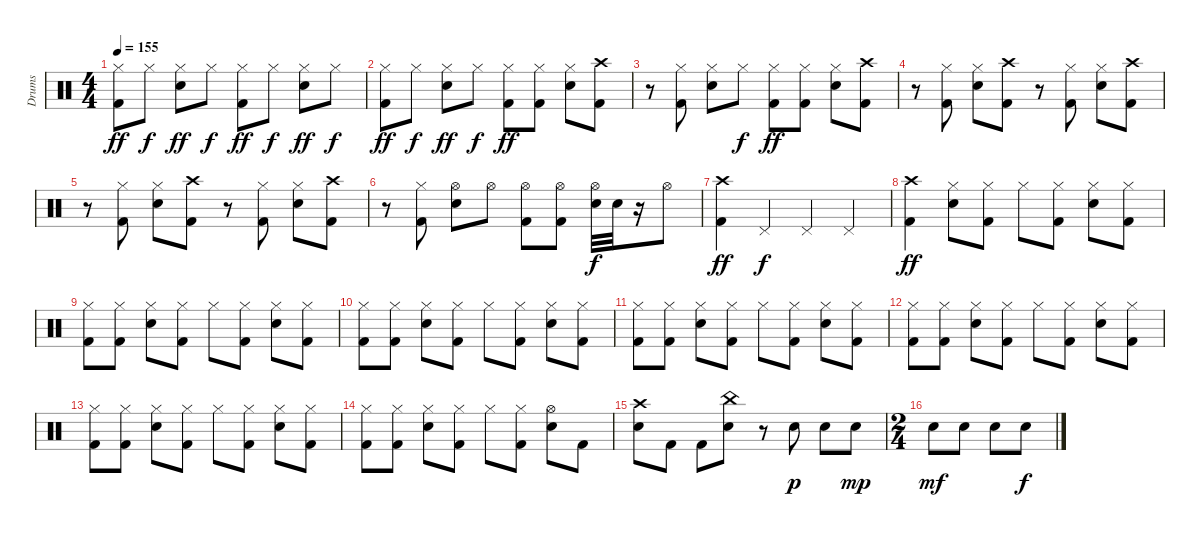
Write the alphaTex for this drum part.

\track ("Drums" "Drums") {instrument percussion}
\staff {score}
\articulation defaults
\ts (4 4)
\tempo 155
\clef neutral
\ks c
("Hi-Hat (closed)" "Kick (hit) 2").8{dy ff} "Hi-Hat (closed)".8{dy f} ("Hi-Hat (closed)" "Snare (hit) 2").8{dy ff} "Hi-Hat (closed)".8{dy f} ("Hi-Hat (closed)" "Kick (hit) 2").8{dy ff} "Hi-Hat (closed)".8{dy f} ("Hi-Hat (closed)" "Snare (hit) 2").8{dy ff} "Hi-Hat (closed)".8{dy f} |
("Hi-Hat (closed)" "Kick (hit) 2").8{dy ff} "Hi-Hat (closed)".8{dy f} ("Hi-Hat (closed)" "Snare (hit) 2").8{dy ff} "Hi-Hat (closed)".8{dy f} ("Hi-Hat (closed)" "Kick (hit) 2").8{dy ff} ("Hi-Hat (closed)" "Kick (hit) 2").8 ("Hi-Hat (closed)" "Snare (hit) 2").8 ("Crash high (hit)" "Kick (hit) 2").8 |
r.8 ("Hi-Hat (closed)" "Kick (hit) 2").8 ("Hi-Hat (closed)" "Snare (hit) 2").8 "Hi-Hat (closed)".8{dy f} ("Hi-Hat (closed)" "Kick (hit) 2").8{dy ff} ("Hi-Hat (closed)" "Kick (hit) 2").8 ("Hi-Hat (closed)" "Snare (hit) 2").8 ("Crash high (hit)" "Kick (hit) 2").8 |
r.8 ("Hi-Hat (closed)" "Kick (hit) 2").8 ("Hi-Hat (closed)" "Snare (hit) 2").8 ("Crash high (hit)" "Kick (hit) 2").8 r.8 ("Hi-Hat (closed)" "Kick (hit) 2").8 ("Hi-Hat (closed)" "Snare (hit) 2").8 ("Crash high (hit)" "Kick (hit) 2").8 |
r.8 ("Hi-Hat (closed)" "Kick (hit) 2").8 ("Hi-Hat (closed)" "Snare (hit) 2").8 ("Crash high (hit)" "Kick (hit) 2").8 r.8 ("Hi-Hat (closed)" "Kick (hit) 2").8 ("Hi-Hat (closed)" "Snare (hit) 2").8 ("Crash high (hit)" "Kick (hit) 2").8 |
r.8 ("Hi-Hat (closed)" "Kick (hit) 2").8 ("Hi-Hat (open)" "Snare (hit) 2").8 "Hi-Hat (open)".8 ("Hi-Hat (open)" "Kick (hit) 2").8 ("Hi-Hat (open)" "Kick (hit) 2").8 ("Hi-Hat (open)" "Snare (hit) 2").32{dy f} "Snare (hit) 2".32 r.16 "Hi-Hat (open)".8 |
("Crash high (hit)" "Kick (hit) 2").4{dy ff} "Pedal Hi-Hat (hit)".4{dy f} "Pedal Hi-Hat (hit)".4 "Pedal Hi-Hat (hit)".4 |
("Crash high (hit)" "Kick (hit) 2").4{dy ff} ("Hi-Hat (closed)" "Snare (hit) 2").8 ("Hi-Hat (closed)" "Kick (hit) 2").8 "Hi-Hat (closed)".8 ("Hi-Hat (closed)" "Kick (hit) 2").8 ("Hi-Hat (closed)" "Snare (hit) 2").8 ("Hi-Hat (closed)" "Kick (hit) 2").8 |
("Hi-Hat (closed)" "Kick (hit) 2").8 ("Hi-Hat (closed)" "Kick (hit) 2").8 ("Hi-Hat (closed)" "Snare (hit) 2").8 ("Hi-Hat (closed)" "Kick (hit) 2").8 "Hi-Hat (closed)".8 ("Hi-Hat (closed)" "Kick (hit) 2").8 ("Hi-Hat (closed)" "Snare (hit) 2").8 ("Hi-Hat (closed)" "Kick (hit) 2").8 |
("Hi-Hat (closed)" "Kick (hit) 2").8 ("Hi-Hat (closed)" "Kick (hit) 2").8 ("Hi-Hat (closed)" "Snare (hit) 2").8 ("Hi-Hat (closed)" "Kick (hit) 2").8 "Hi-Hat (closed)".8 ("Hi-Hat (closed)" "Kick (hit) 2").8 ("Hi-Hat (closed)" "Snare (hit) 2").8 ("Hi-Hat (closed)" "Kick (hit) 2").8 |
("Hi-Hat (closed)" "Kick (hit) 2").8 ("Hi-Hat (closed)" "Kick (hit) 2").8 ("Hi-Hat (closed)" "Snare (hit) 2").8 ("Hi-Hat (closed)" "Kick (hit) 2").8 "Hi-Hat (closed)".8 ("Hi-Hat (closed)" "Kick (hit) 2").8 ("Hi-Hat (closed)" "Snare (hit) 2").8 ("Hi-Hat (closed)" "Kick (hit) 2").8 |
("Hi-Hat (closed)" "Kick (hit) 2").8 ("Hi-Hat (closed)" "Kick (hit) 2").8 ("Hi-Hat (closed)" "Snare (hit) 2").8 ("Hi-Hat (closed)" "Kick (hit) 2").8 "Hi-Hat (closed)".8 ("Hi-Hat (closed)" "Kick (hit) 2").8 ("Hi-Hat (closed)" "Snare (hit) 2").8 ("Hi-Hat (closed)" "Kick (hit) 2").8 |
("Hi-Hat (closed)" "Kick (hit) 2").8 ("Hi-Hat (closed)" "Kick (hit) 2").8 ("Hi-Hat (closed)" "Snare (hit) 2").8 ("Hi-Hat (closed)" "Kick (hit) 2").8 "Hi-Hat (closed)".8 ("Hi-Hat (closed)" "Kick (hit) 2").8 ("Hi-Hat (closed)" "Snare (hit) 2").8 ("Hi-Hat (closed)" "Kick (hit) 2").8 |
("Hi-Hat (closed)" "Kick (hit) 2").8 ("Hi-Hat (closed)" "Kick (hit) 2").8 ("Hi-Hat (closed)" "Snare (hit) 2").8 ("Hi-Hat (closed)" "Kick (hit) 2").8 "Hi-Hat (closed)".8 ("Hi-Hat (closed)" "Kick (hit) 2").8 ("Hi-Hat (open)" "Snare (hit) 2").8 "Kick (hit) 2".8 |
("Crash high (hit)" "Snare (hit) 2").8 "Kick (hit) 2".8 "Kick (hit) 2".8 ("China (hit)" "Snare (hit) 2").8 r.8 "Snare (hit) 2".8{dy p} "Snare (hit) 2".8 "Snare (hit) 2".8{dy mp} |
\ts (2 4)
"Snare (hit) 2".8{dy mf} "Snare (hit) 2".8 "Snare (hit) 2".8 "Snare (hit) 2".8{dy f}
